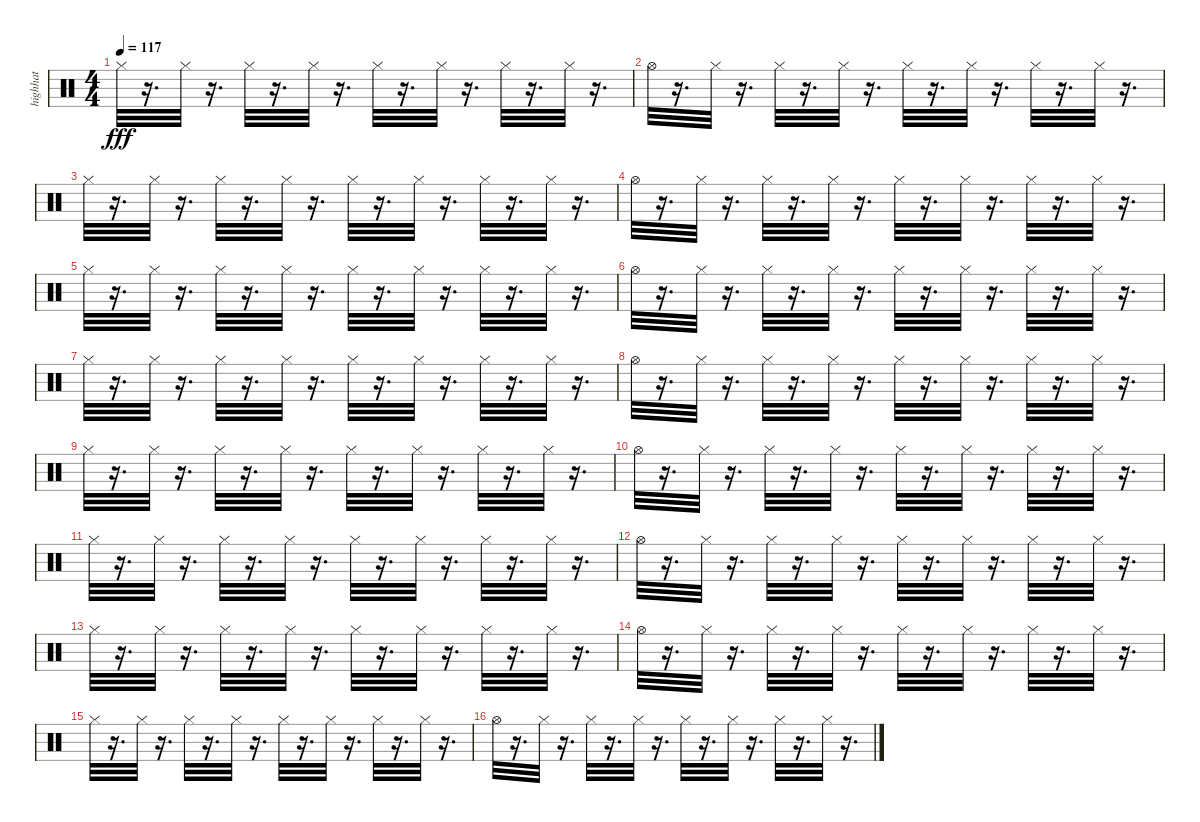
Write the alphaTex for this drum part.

\track ("highhat" "highhat") {instrument percussion}
\staff {score}
\articulation defaults
\ts (4 4)
\tempo 117
\clef neutral
\ks c "Hi-Hat (closed)".32{dy fff}
r.16{d} "Hi-Hat (closed)".32 r.16{d} "Hi-Hat (closed)".32 r.16{d} "Hi-Hat (closed)".32 r.16{d} "Hi-Hat (closed)".32 r.16{d} "Hi-Hat (closed)".32 r.16{d} "Hi-Hat (closed)".32 r.16{d} "Hi-Hat (closed)".32 r.16{d} |
"Hi-Hat (open)".32 r.16{d} "Hi-Hat (closed)".32 r.16{d} "Hi-Hat (closed)".32 r.16{d} "Hi-Hat (closed)".32 r.16{d} "Hi-Hat (closed)".32 r.16{d} "Hi-Hat (closed)".32 r.16{d} "Hi-Hat (closed)".32 r.16{d} "Hi-Hat (closed)".32 r.16{d} |
"Hi-Hat (closed)".32 r.16{d} "Hi-Hat (closed)".32 r.16{d} "Hi-Hat (closed)".32 r.16{d} "Hi-Hat (closed)".32 r.16{d} "Hi-Hat (closed)".32 r.16{d} "Hi-Hat (closed)".32 r.16{d} "Hi-Hat (closed)".32 r.16{d} "Hi-Hat (closed)".32 r.16{d} |
"Hi-Hat (open)".32 r.16{d} "Hi-Hat (closed)".32 r.16{d} "Hi-Hat (closed)".32 r.16{d} "Hi-Hat (closed)".32 r.16{d} "Hi-Hat (closed)".32 r.16{d} "Hi-Hat (closed)".32 r.16{d} "Hi-Hat (closed)".32 r.16{d} "Hi-Hat (closed)".32 r.16{d} |
"Hi-Hat (closed)".32 r.16{d} "Hi-Hat (closed)".32 r.16{d} "Hi-Hat (closed)".32 r.16{d} "Hi-Hat (closed)".32 r.16{d} "Hi-Hat (closed)".32 r.16{d} "Hi-Hat (closed)".32 r.16{d} "Hi-Hat (closed)".32 r.16{d} "Hi-Hat (closed)".32 r.16{d} |
"Hi-Hat (open)".32 r.16{d} "Hi-Hat (closed)".32 r.16{d} "Hi-Hat (closed)".32 r.16{d} "Hi-Hat (closed)".32 r.16{d} "Hi-Hat (closed)".32 r.16{d} "Hi-Hat (closed)".32 r.16{d} "Hi-Hat (closed)".32 r.16{d} "Hi-Hat (closed)".32 r.16{d} |
"Hi-Hat (closed)".32 r.16{d} "Hi-Hat (closed)".32 r.16{d} "Hi-Hat (closed)".32 r.16{d} "Hi-Hat (closed)".32 r.16{d} "Hi-Hat (closed)".32 r.16{d} "Hi-Hat (closed)".32 r.16{d} "Hi-Hat (closed)".32 r.16{d} "Hi-Hat (closed)".32 r.16{d} |
"Hi-Hat (open)".32 r.16{d} "Hi-Hat (closed)".32 r.16{d} "Hi-Hat (closed)".32 r.16{d} "Hi-Hat (closed)".32 r.16{d} "Hi-Hat (closed)".32 r.16{d} "Hi-Hat (closed)".32 r.16{d} "Hi-Hat (closed)".32 r.16{d} "Hi-Hat (closed)".32 r.16{d} |
"Hi-Hat (closed)".32 r.16{d} "Hi-Hat (closed)".32 r.16{d} "Hi-Hat (closed)".32 r.16{d} "Hi-Hat (closed)".32 r.16{d} "Hi-Hat (closed)".32 r.16{d} "Hi-Hat (closed)".32 r.16{d} "Hi-Hat (closed)".32 r.16{d} "Hi-Hat (closed)".32 r.16{d} |
"Hi-Hat (open)".32 r.16{d} "Hi-Hat (closed)".32 r.16{d} "Hi-Hat (closed)".32 r.16{d} "Hi-Hat (closed)".32 r.16{d} "Hi-Hat (closed)".32 r.16{d} "Hi-Hat (closed)".32 r.16{d} "Hi-Hat (closed)".32 r.16{d} "Hi-Hat (closed)".32 r.16{d} |
"Hi-Hat (closed)".32 r.16{d} "Hi-Hat (closed)".32 r.16{d} "Hi-Hat (closed)".32 r.16{d} "Hi-Hat (closed)".32 r.16{d} "Hi-Hat (closed)".32 r.16{d} "Hi-Hat (closed)".32 r.16{d} "Hi-Hat (closed)".32 r.16{d} "Hi-Hat (closed)".32 r.16{d} |
"Hi-Hat (open)".32 r.16{d} "Hi-Hat (closed)".32 r.16{d} "Hi-Hat (closed)".32 r.16{d} "Hi-Hat (closed)".32 r.16{d} "Hi-Hat (closed)".32 r.16{d} "Hi-Hat (closed)".32 r.16{d} "Hi-Hat (closed)".32 r.16{d} "Hi-Hat (closed)".32 r.16{d} |
"Hi-Hat (closed)".32 r.16{d} "Hi-Hat (closed)".32 r.16{d} "Hi-Hat (closed)".32 r.16{d} "Hi-Hat (closed)".32 r.16{d} "Hi-Hat (closed)".32 r.16{d} "Hi-Hat (closed)".32 r.16{d} "Hi-Hat (closed)".32 r.16{d} "Hi-Hat (closed)".32 r.16{d} |
"Hi-Hat (open)".32 r.16{d} "Hi-Hat (closed)".32 r.16{d} "Hi-Hat (closed)".32 r.16{d} "Hi-Hat (closed)".32 r.16{d} "Hi-Hat (closed)".32 r.16{d} "Hi-Hat (closed)".32 r.16{d} "Hi-Hat (closed)".32 r.16{d} "Hi-Hat (closed)".32 r.16{d} |
"Hi-Hat (closed)".32 r.16{d} "Hi-Hat (closed)".32 r.16{d} "Hi-Hat (closed)".32 r.16{d} "Hi-Hat (closed)".32 r.16{d} "Hi-Hat (closed)".32 r.16{d} "Hi-Hat (closed)".32 r.16{d} "Hi-Hat (closed)".32 r.16{d} "Hi-Hat (closed)".32 r.16{d} |
"Hi-Hat (open)".32 r.16{d} "Hi-Hat (closed)".32 r.16{d} "Hi-Hat (closed)".32 r.16{d} "Hi-Hat (closed)".32 r.16{d} "Hi-Hat (closed)".32 r.16{d} "Hi-Hat (closed)".32 r.16{d} "Hi-Hat (closed)".32 r.16{d} "Hi-Hat (closed)".32 r.16{d}
